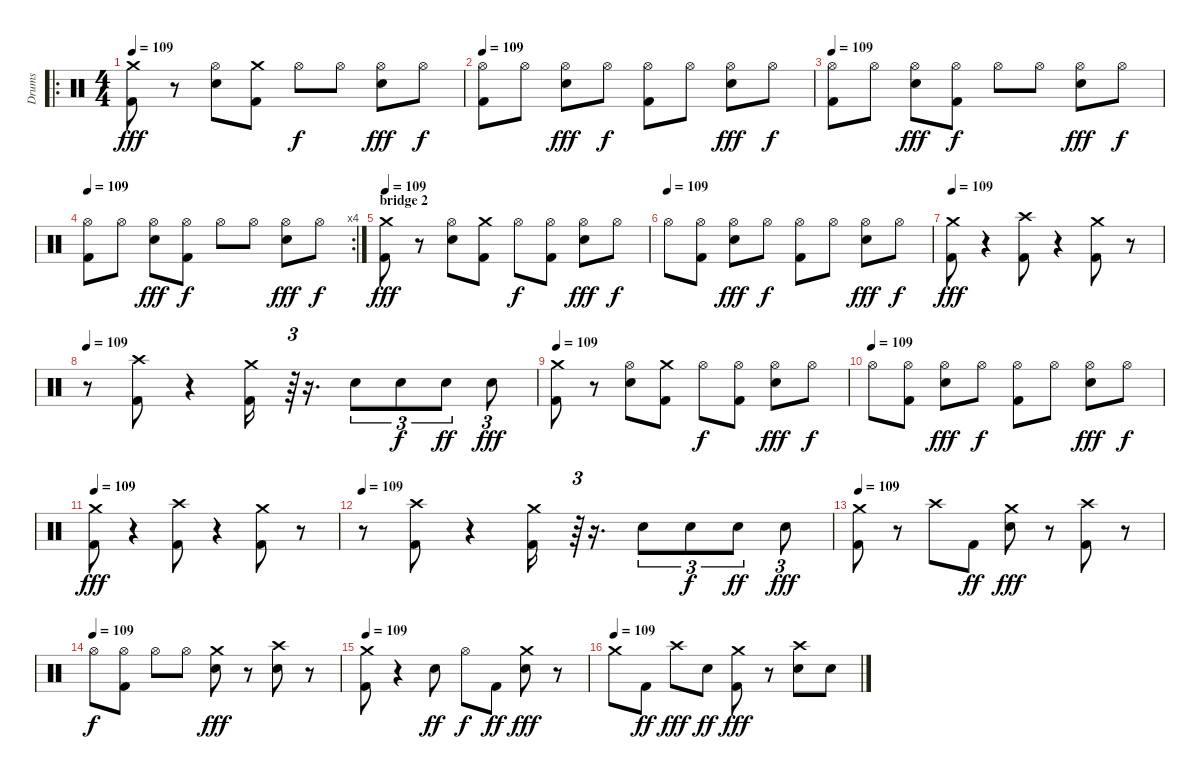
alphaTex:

\track ("Drums" "Drums") {instrument percussion}
\staff {score}
\articulation defaults
\ro
\ts (4 4)
\tempo 109
\clef neutral
\ks c
("Kick (hit) 2" "Crash medium (hit)").8{dy fff} r.8 ("Snare (hit) 2" "Hi-Hat (open)").8 ("Kick (hit) 2" "Crash medium (hit)").8 "Hi-Hat (open)".8{dy f} "Hi-Hat (open)".8 ("Snare (hit) 2" "Hi-Hat (open)").8{dy fff} "Hi-Hat (open)".8{dy f} |
\tempo 109
("Kick (hit) 2" "Hi-Hat (open)").8 "Hi-Hat (open)".8 ("Snare (hit) 2" "Hi-Hat (open)").8{dy fff} "Hi-Hat (open)".8{dy f} ("Kick (hit) 2" "Hi-Hat (open)").8 "Hi-Hat (open)".8 ("Snare (hit) 2" "Hi-Hat (open)").8{dy fff} "Hi-Hat (open)".8{dy f} |
\tempo 109
("Kick (hit) 2" "Hi-Hat (open)").8 "Hi-Hat (open)".8 ("Snare (hit) 2" "Hi-Hat (open)").8{dy fff} ("Kick (hit) 2" "Hi-Hat (open)").8{dy f} "Hi-Hat (open)".8 "Hi-Hat (open)".8 ("Snare (hit) 2" "Hi-Hat (open)").8{dy fff} "Hi-Hat (open)".8{dy f} |
\rc 4
\tempo 109
("Kick (hit) 2" "Hi-Hat (open)").8 "Hi-Hat (open)".8 ("Snare (hit) 2" "Hi-Hat (open)").8{dy fff} ("Kick (hit) 2" "Hi-Hat (open)").8{dy f} "Hi-Hat (open)".8 "Hi-Hat (open)".8 ("Snare (hit) 2" "Hi-Hat (open)").8{dy fff} "Hi-Hat (open)".8{dy f} |
\section ("" "bridge 2")
\tempo 109
("Kick (hit) 2" "Crash medium (hit)").8{dy fff} r.8 ("Snare (hit) 2" "Hi-Hat (open)").8 ("Kick (hit) 2" "Crash medium (hit)").8 "Hi-Hat (open)".8{dy f} ("Kick (hit) 2" "Hi-Hat (open)").8 ("Snare (hit) 2" "Hi-Hat (open)").8{dy fff} "Hi-Hat (open)".8{dy f} |
\tempo (109)
"Hi-Hat (open)".8 ("Kick (hit) 2" "Hi-Hat (open)").8 ("Snare (hit) 2" "Hi-Hat (open)").8{dy fff} "Hi-Hat (open)".8{dy f} ("Kick (hit) 2" "Hi-Hat (open)").8 "Hi-Hat (open)".8 ("Snare (hit) 2" "Hi-Hat (open)").8{dy fff} "Hi-Hat (open)".8{dy f} |
\tempo 109
("Kick (hit) 2" "Crash medium (hit)").8{dy fff} r.4 ("Kick (hit) 2" "Crash high (hit)").8 r.4 ("Kick (hit) 2" "Crash medium (hit)").8 r.8 |
\tempo 109
r.8 ("Kick (hit) 2" "Crash high (hit)").8 r.4 ("Kick (hit) 2" "Crash medium (hit)").16 r.64{tu (3 2)} r.16{d} "Snare (hit) 2".8{tu (3 2)} "Snare (hit) 2".8{tu (3 2) dy f} "Snare (hit) 2".8{tu (3 2) dy ff} "Snare (hit) 2".8{tu (3 2) dy fff} |
\tempo 109
("Kick (hit) 2" "Crash medium (hit)").8 r.8 ("Snare (hit) 2" "Hi-Hat (open)").8 ("Kick (hit) 2" "Crash medium (hit)").8 "Hi-Hat (open)".8{dy f} ("Kick (hit) 2" "Hi-Hat (open)").8 ("Snare (hit) 2" "Hi-Hat (open)").8{dy fff} "Hi-Hat (open)".8{dy f} |
\tempo (109)
"Hi-Hat (open)".8 ("Kick (hit) 2" "Hi-Hat (open)").8 ("Snare (hit) 2" "Hi-Hat (open)").8{dy fff} "Hi-Hat (open)".8{dy f} ("Kick (hit) 2" "Hi-Hat (open)").8 "Hi-Hat (open)".8 ("Snare (hit) 2" "Hi-Hat (open)").8{dy fff} "Hi-Hat (open)".8{dy f} |
\tempo 109
("Kick (hit) 2" "Crash medium (hit)").8{dy fff} r.4 ("Kick (hit) 2" "Crash high (hit)").8 r.4 ("Kick (hit) 2" "Crash medium (hit)").8 r.8 |
\tempo 109
r.8 ("Kick (hit) 2" "Crash high (hit)").8 r.4 ("Kick (hit) 2" "Crash medium (hit)").16 r.64{tu (3 2)} r.16{d} "Snare (hit) 2".8{tu (3 2)} "Snare (hit) 2".8{tu (3 2) dy f} "Snare (hit) 2".8{tu (3 2) dy ff} "Snare (hit) 2".8{tu (3 2) dy fff} |
\tempo 109
("Kick (hit) 2" "Crash medium (hit)").8 r.8 "Crash high (hit)".8 "Kick (hit) 2".8{dy ff} ("Snare (hit) 2" "Crash medium (hit)").8{dy fff} r.8 ("Kick (hit) 2" "Crash high (hit)").8 r.8 |
\tempo (109)
"Hi-Hat (open)".8{dy f} ("Kick (hit) 2" "Hi-Hat (open)").8 "Hi-Hat (open)".8 "Hi-Hat (open)".8 ("Snare (hit) 2" "Crash medium (hit)").8{dy fff} r.8 ("Snare (hit) 2" "Crash high (hit)").8 r.8 |
\tempo 109
("Kick (hit) 2" "Crash medium (hit)").8 r.4 "Snare (hit) 2".8{dy ff} "Hi-Hat (open)".8{dy f} "Kick (hit) 2".8{dy ff} ("Snare (hit) 2" "Crash medium (hit)").8{dy fff} r.8 |
\tempo (109)
"Crash medium (hit)".8 "Kick (hit) 2".8{dy ff} "Crash high (hit)".8{dy fff} "Snare (hit) 2".8{dy ff} ("Kick (hit) 2" "Crash medium (hit)").8{dy fff} r.8 ("Snare (hit) 2" "Crash high (hit)").8 "Snare (hit) 2".8
